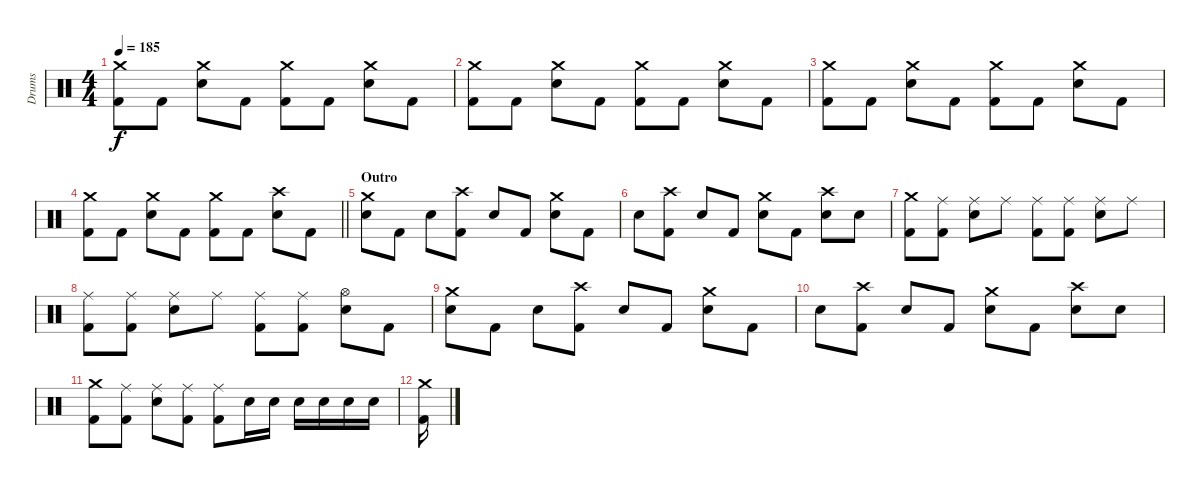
\track ("Drums" "Drums") {instrument percussion}
\staff {score}
\articulation defaults
\ts (4 4)
\tempo 185
\clef neutral
\ks c
("Crash medium (hit)" "Kick (hit) 2").8{dy f} "Kick (hit) 2".8 ("Crash medium (hit)" "Electric Snare (hit)").8 "Kick (hit) 2".8 ("Crash medium (hit)" "Kick (hit) 2").8 "Kick (hit) 2".8 ("Crash medium (hit)" "Electric Snare (hit)").8 "Kick (hit) 2".8 |
("Crash medium (hit)" "Kick (hit) 2").8 "Kick (hit) 2".8 ("Crash medium (hit)" "Electric Snare (hit)").8 "Kick (hit) 2".8 ("Crash medium (hit)" "Kick (hit) 2").8 "Kick (hit) 2".8 ("Crash medium (hit)" "Electric Snare (hit)").8 "Kick (hit) 2".8 |
("Crash medium (hit)" "Kick (hit) 2").8 "Kick (hit) 2".8 ("Crash medium (hit)" "Electric Snare (hit)").8 "Kick (hit) 2".8 ("Crash medium (hit)" "Kick (hit) 2").8 "Kick (hit) 2".8 ("Crash medium (hit)" "Electric Snare (hit)").8 "Kick (hit) 2".8 |
\barLineRight lightlight
("Crash medium (hit)" "Kick (hit) 2").8 "Kick (hit) 2".8 ("Crash medium (hit)" "Electric Snare (hit)").8 "Kick (hit) 2".8 ("Crash medium (hit)" "Kick (hit) 2").8 "Kick (hit) 2".8 ("Crash high (hit)" "Electric Snare (hit)").8 "Kick (hit) 2".8 |
\section ("" "Outro")
("Crash medium (hit)" "Electric Snare (hit)").8 "Kick (hit) 2".8 "Electric Snare (hit)".8 ("Crash high (hit)" "Kick (hit) 2").8 "Electric Snare (hit)".8 "Kick (hit) 2".8 ("Crash medium (hit)" "Electric Snare (hit)").8 "Kick (hit) 2".8 |
"Electric Snare (hit)".8 ("Crash high (hit)" "Kick (hit) 2").8 "Electric Snare (hit)".8 "Kick (hit) 2".8 ("Crash medium (hit)" "Electric Snare (hit)").8 "Kick (hit) 2".8 ("Crash high (hit)" "Electric Snare (hit)").8 "Electric Snare (hit)".8 |
("Crash medium (hit)" "Kick (hit) 2").8 ("Ride (middle)" "Kick (hit) 2").8 ("Ride (middle)" "Electric Snare (hit)").8 "Ride (middle)".8 ("Ride (middle)" "Kick (hit) 2").8 ("Ride (middle)" "Kick (hit) 2").8 ("Ride (middle)" "Electric Snare (hit)").8 "Ride (middle)".8 |
("Ride (middle)" "Kick (hit) 2").8 ("Ride (middle)" "Kick (hit) 2").8 ("Ride (middle)" "Electric Snare (hit)").8 "Ride (middle)".8 ("Ride (middle)" "Kick (hit) 2").8 ("Ride (middle)" "Kick (hit) 2").8 ("Hi-Hat (open)" "Electric Snare (hit)").8 "Kick (hit) 2".8 |
("Crash medium (hit)" "Electric Snare (hit)").8 "Kick (hit) 2".8 "Electric Snare (hit)".8 ("Crash high (hit)" "Kick (hit) 2").8 "Electric Snare (hit)".8 "Kick (hit) 2".8 ("Crash medium (hit)" "Electric Snare (hit)").8 "Kick (hit) 2".8 |
"Electric Snare (hit)".8 ("Crash high (hit)" "Kick (hit) 2").8 "Electric Snare (hit)".8 "Kick (hit) 2".8 ("Crash medium (hit)" "Electric Snare (hit)").8 "Kick (hit) 2".8 ("Crash high (hit)" "Electric Snare (hit)").8 "Electric Snare (hit)".8 |
("Crash medium (hit)" "Kick (hit) 2").8 ("Ride (middle)" "Kick (hit) 2").8 ("Ride (middle)" "Electric Snare (hit)").8 ("Ride (middle)" "Kick (hit) 2").8 ("Ride (middle)" "Kick (hit) 2").8 "Electric Snare (hit)".16 "Electric Snare (hit)".16 "Electric Snare (hit)".16 "Electric Snare (hit)".16 "Electric Snare (hit)".16 "Electric Snare (hit)".16 |
("Crash medium (hit)" "Kick (hit) 2").16
